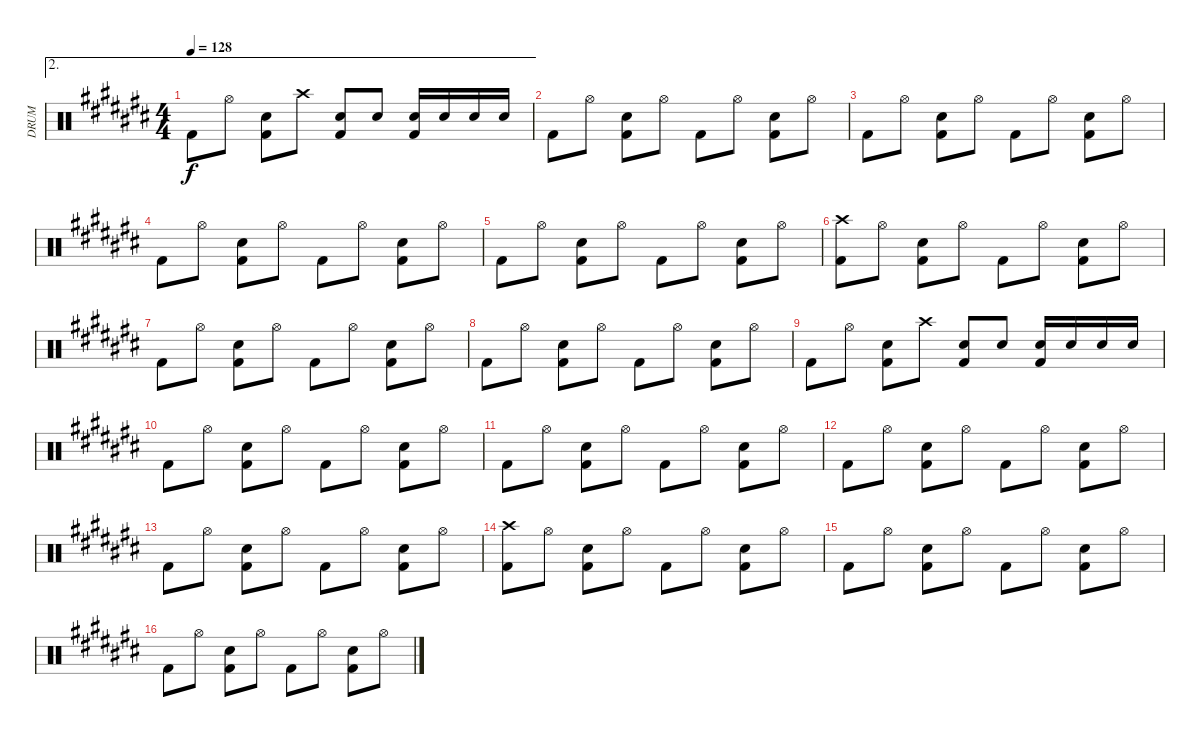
\track ("DRUM" "DRUM") {instrument percussion}
\staff {score}
\articulation defaults
\ae 2
\ts (4 4)
\tempo 128
\clef neutral
\ks c# "Kick (hit) 2".8{dy f} "Hi-Hat (open)".8
("Electric Snare (hit)" "Kick (hit) 2").8 "Crash high (hit)".8 ("Electric Snare (hit)" "Kick (hit) 2").8 "Electric Snare (hit)".8 ("Electric Snare (hit)" "Kick (hit) 2").16 "Electric Snare (hit)".16 "Electric Snare (hit)".16 "Electric Snare (hit)".16 |
"Kick (hit) 2".8 "Hi-Hat (open)".8 ("Electric Snare (hit)" "Kick (hit) 2").8 "Hi-Hat (open)".8 "Kick (hit) 2".8 "Hi-Hat (open)".8 ("Electric Snare (hit)" "Kick (hit) 2").8 "Hi-Hat (open)".8 |
"Kick (hit) 2".8 "Hi-Hat (open)".8 ("Electric Snare (hit)" "Kick (hit) 2").8 "Hi-Hat (open)".8 "Kick (hit) 2".8 "Hi-Hat (open)".8 ("Electric Snare (hit)" "Kick (hit) 2").8 "Hi-Hat (open)".8 |
"Kick (hit) 2".8 "Hi-Hat (open)".8 ("Electric Snare (hit)" "Kick (hit) 2").8 "Hi-Hat (open)".8 "Kick (hit) 2".8 "Hi-Hat (open)".8 ("Electric Snare (hit)" "Kick (hit) 2").8 "Hi-Hat (open)".8 |
"Kick (hit) 2".8 "Hi-Hat (open)".8 ("Electric Snare (hit)" "Kick (hit) 2").8 "Hi-Hat (open)".8 "Kick (hit) 2".8 "Hi-Hat (open)".8 ("Electric Snare (hit)" "Kick (hit) 2").8 "Hi-Hat (open)".8 |
("Crash high (hit)" "Kick (hit) 2").8 "Hi-Hat (open)".8 ("Electric Snare (hit)" "Kick (hit) 2").8 "Hi-Hat (open)".8 "Kick (hit) 2".8 "Hi-Hat (open)".8 ("Electric Snare (hit)" "Kick (hit) 2").8 "Hi-Hat (open)".8 |
"Kick (hit) 2".8 "Hi-Hat (open)".8 ("Electric Snare (hit)" "Kick (hit) 2").8 "Hi-Hat (open)".8 "Kick (hit) 2".8 "Hi-Hat (open)".8 ("Electric Snare (hit)" "Kick (hit) 2").8 "Hi-Hat (open)".8 |
"Kick (hit) 2".8 "Hi-Hat (open)".8 ("Electric Snare (hit)" "Kick (hit) 2").8 "Hi-Hat (open)".8 "Kick (hit) 2".8 "Hi-Hat (open)".8 ("Electric Snare (hit)" "Kick (hit) 2").8 "Hi-Hat (open)".8 |
"Kick (hit) 2".8 "Hi-Hat (open)".8 ("Electric Snare (hit)" "Kick (hit) 2").8 "Crash high (hit)".8 ("Electric Snare (hit)" "Kick (hit) 2").8 "Electric Snare (hit)".8 ("Electric Snare (hit)" "Kick (hit) 2").16 "Electric Snare (hit)".16 "Electric Snare (hit)".16 "Electric Snare (hit)".16 |
"Kick (hit) 2".8 "Hi-Hat (open)".8 ("Electric Snare (hit)" "Kick (hit) 2").8 "Hi-Hat (open)".8 "Kick (hit) 2".8 "Hi-Hat (open)".8 ("Electric Snare (hit)" "Kick (hit) 2").8 "Hi-Hat (open)".8 |
"Kick (hit) 2".8 "Hi-Hat (open)".8 ("Electric Snare (hit)" "Kick (hit) 2").8 "Hi-Hat (open)".8 "Kick (hit) 2".8 "Hi-Hat (open)".8 ("Electric Snare (hit)" "Kick (hit) 2").8 "Hi-Hat (open)".8 |
"Kick (hit) 2".8 "Hi-Hat (open)".8 ("Electric Snare (hit)" "Kick (hit) 2").8 "Hi-Hat (open)".8 "Kick (hit) 2".8 "Hi-Hat (open)".8 ("Electric Snare (hit)" "Kick (hit) 2").8 "Hi-Hat (open)".8 |
"Kick (hit) 2".8 "Hi-Hat (open)".8 ("Electric Snare (hit)" "Kick (hit) 2").8 "Hi-Hat (open)".8 "Kick (hit) 2".8 "Hi-Hat (open)".8 ("Electric Snare (hit)" "Kick (hit) 2").8 "Hi-Hat (open)".8 |
("Crash high (hit)" "Kick (hit) 2").8 "Hi-Hat (open)".8 ("Electric Snare (hit)" "Kick (hit) 2").8 "Hi-Hat (open)".8 "Kick (hit) 2".8 "Hi-Hat (open)".8 ("Electric Snare (hit)" "Kick (hit) 2").8 "Hi-Hat (open)".8 |
"Kick (hit) 2".8 "Hi-Hat (open)".8 ("Electric Snare (hit)" "Kick (hit) 2").8 "Hi-Hat (open)".8 "Kick (hit) 2".8 "Hi-Hat (open)".8 ("Electric Snare (hit)" "Kick (hit) 2").8 "Hi-Hat (open)".8 |
"Kick (hit) 2".8 "Hi-Hat (open)".8 ("Electric Snare (hit)" "Kick (hit) 2").8 "Hi-Hat (open)".8 "Kick (hit) 2".8 "Hi-Hat (open)".8 ("Electric Snare (hit)" "Kick (hit) 2").8 "Hi-Hat (open)".8
